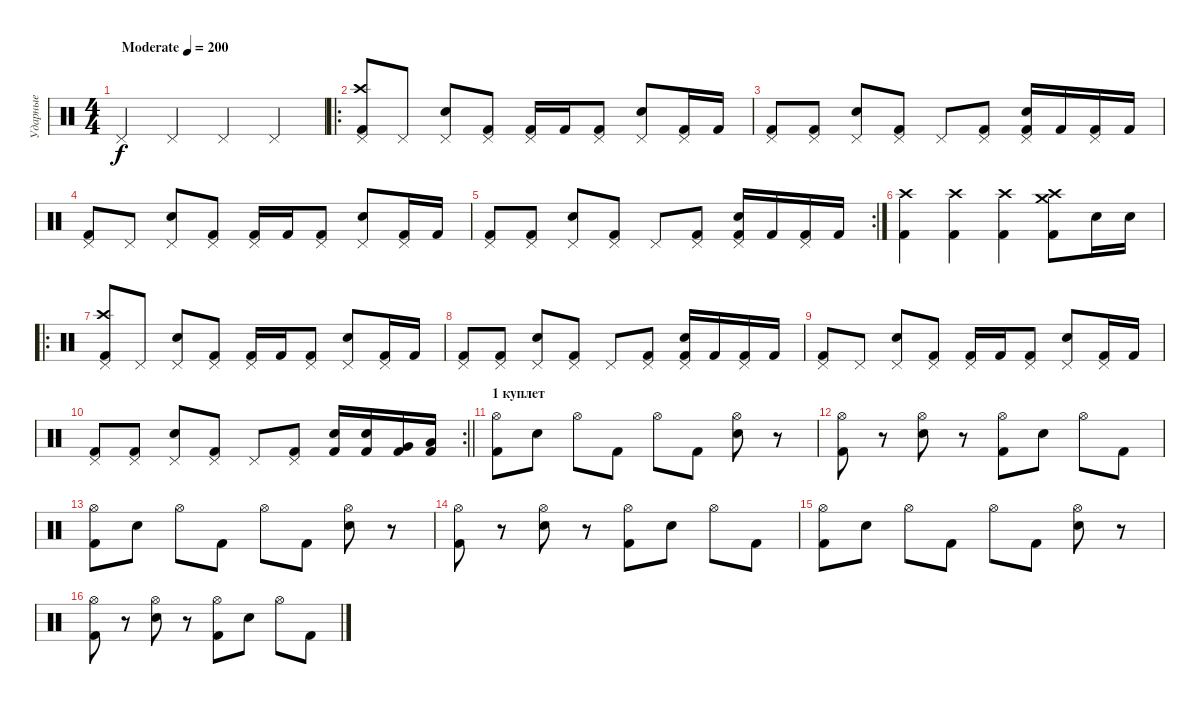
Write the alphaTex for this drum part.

\track ("Ударные" "Ударные") {instrument percussion}
\staff {score}
\articulation defaults
\ts (4 4)
\tempo (200 "Moderate")
\clef neutral
\ks c "Pedal Hi-Hat (hit)".4{dy f} "Pedal Hi-Hat (hit)".4 "Pedal Hi-Hat (hit)".4 "Pedal Hi-Hat (hit)".4
|
\ro
("Crash high (hit)" "Pedal Hi-Hat (hit)" "Kick (hit) 2").8 "Pedal Hi-Hat (hit)".8 ("Snare (hit) 2" "Pedal Hi-Hat (hit)").8 ("Pedal Hi-Hat (hit)" "Kick (hit) 2").8 ("Pedal Hi-Hat (hit)" "Kick (hit) 2").16 "Kick (hit) 2".16 ("Pedal Hi-Hat (hit)" "Kick (hit) 2").8 ("Snare (hit) 2" "Pedal Hi-Hat (hit)").8 ("Pedal Hi-Hat (hit)" "Kick (hit) 2").16 "Kick (hit) 2".16 |
("Pedal Hi-Hat (hit)" "Kick (hit) 2").8 ("Pedal Hi-Hat (hit)" "Kick (hit) 2").8 ("Snare (hit) 2" "Pedal Hi-Hat (hit)").8 ("Pedal Hi-Hat (hit)" "Kick (hit) 2").8 "Pedal Hi-Hat (hit)".8 ("Pedal Hi-Hat (hit)" "Kick (hit) 2").8 ("Snare (hit) 2" "Pedal Hi-Hat (hit)" "Kick (hit) 2").16 "Kick (hit) 2".16 ("Pedal Hi-Hat (hit)" "Kick (hit) 2").16 "Kick (hit) 2".16 |
("Pedal Hi-Hat (hit)" "Kick (hit) 2").8 "Pedal Hi-Hat (hit)".8 ("Snare (hit) 2" "Pedal Hi-Hat (hit)").8 ("Pedal Hi-Hat (hit)" "Kick (hit) 2").8 ("Pedal Hi-Hat (hit)" "Kick (hit) 2").16 "Kick (hit) 2".16 ("Pedal Hi-Hat (hit)" "Kick (hit) 2").8 ("Snare (hit) 2" "Pedal Hi-Hat (hit)").8 ("Pedal Hi-Hat (hit)" "Kick (hit) 2").16 "Kick (hit) 2".16 |
\rc 2
("Pedal Hi-Hat (hit)" "Kick (hit) 2").8 ("Pedal Hi-Hat (hit)" "Kick (hit) 2").8 ("Snare (hit) 2" "Pedal Hi-Hat (hit)").8 ("Pedal Hi-Hat (hit)" "Kick (hit) 2").8 "Pedal Hi-Hat (hit)".8 ("Pedal Hi-Hat (hit)" "Kick (hit) 2").8 ("Snare (hit) 2" "Pedal Hi-Hat (hit)" "Kick (hit) 2").16 "Kick (hit) 2".16 ("Pedal Hi-Hat (hit)" "Kick (hit) 2").16 "Kick (hit) 2".16 |
("Crash high (hit)" "Kick (hit) 2").4 ("Crash high (hit)" "Kick (hit) 2").4 ("Crash high (hit)" "Kick (hit) 2").4 ("Crash medium (hit)" "Crash high (hit)" "Kick (hit) 2").8 "Snare (hit) 2".16 "Snare (hit) 2".16 |
\ro
("Crash high (hit)" "Pedal Hi-Hat (hit)" "Kick (hit) 2").8 "Pedal Hi-Hat (hit)".8 ("Snare (hit) 2" "Pedal Hi-Hat (hit)").8 ("Pedal Hi-Hat (hit)" "Kick (hit) 2").8 ("Pedal Hi-Hat (hit)" "Kick (hit) 2").16 "Kick (hit) 2".16 ("Pedal Hi-Hat (hit)" "Kick (hit) 2").8 ("Snare (hit) 2" "Pedal Hi-Hat (hit)").8 ("Pedal Hi-Hat (hit)" "Kick (hit) 2").16 "Kick (hit) 2".16 |
("Pedal Hi-Hat (hit)" "Kick (hit) 2").8 ("Pedal Hi-Hat (hit)" "Kick (hit) 2").8 ("Snare (hit) 2" "Pedal Hi-Hat (hit)").8 ("Pedal Hi-Hat (hit)" "Kick (hit) 2").8 "Pedal Hi-Hat (hit)".8 ("Pedal Hi-Hat (hit)" "Kick (hit) 2").8 ("Snare (hit) 2" "Pedal Hi-Hat (hit)" "Kick (hit) 2").16 "Kick (hit) 2".16 ("Pedal Hi-Hat (hit)" "Kick (hit) 2").16 "Kick (hit) 2".16 |
("Pedal Hi-Hat (hit)" "Kick (hit) 2").8 "Pedal Hi-Hat (hit)".8 ("Snare (hit) 2" "Pedal Hi-Hat (hit)").8 ("Pedal Hi-Hat (hit)" "Kick (hit) 2").8 ("Pedal Hi-Hat (hit)" "Kick (hit) 2").16 "Kick (hit) 2".16 ("Pedal Hi-Hat (hit)" "Kick (hit) 2").8 ("Snare (hit) 2" "Pedal Hi-Hat (hit)").8 ("Pedal Hi-Hat (hit)" "Kick (hit) 2").16 "Kick (hit) 2".16 |
\rc 2
\barLineRight lightlight
("Pedal Hi-Hat (hit)" "Kick (hit) 2").8 ("Pedal Hi-Hat (hit)" "Kick (hit) 2").8 ("Snare (hit) 2" "Pedal Hi-Hat (hit)").8 ("Pedal Hi-Hat (hit)" "Kick (hit) 2").8 "Pedal Hi-Hat (hit)".8 ("Pedal Hi-Hat (hit)" "Kick (hit) 2").8 ("Snare (hit) 2" "Kick (hit) 2").16 ("Snare (hit) 2" "Kick (hit) 2").16 ("Very Low Tom (hit)" "Kick (hit) 2").16 ("Low Floor Tom (hit)" "Kick (hit) 2").16 |
\section ("" "1 куплет")
("Kick (hit) 2" "Hi-Hat (open)").8 "Snare (hit) 2".8 "Hi-Hat (open)".8 "Kick (hit) 2".8 "Hi-Hat (open)".8 "Kick (hit) 2".8 ("Snare (hit) 2" "Hi-Hat (open)").8 r.8 |
("Kick (hit) 2" "Hi-Hat (open)").8 r.8 ("Snare (hit) 2" "Hi-Hat (open)").8 r.8 ("Kick (hit) 2" "Hi-Hat (open)").8 "Snare (hit) 2".8 "Hi-Hat (open)".8 "Kick (hit) 2".8 |
("Kick (hit) 2" "Hi-Hat (open)").8 "Snare (hit) 2".8 "Hi-Hat (open)".8 "Kick (hit) 2".8 "Hi-Hat (open)".8 "Kick (hit) 2".8 ("Snare (hit) 2" "Hi-Hat (open)").8 r.8 |
("Kick (hit) 2" "Hi-Hat (open)").8 r.8 ("Snare (hit) 2" "Hi-Hat (open)").8 r.8 ("Kick (hit) 2" "Hi-Hat (open)").8 "Snare (hit) 2".8 "Hi-Hat (open)".8 "Kick (hit) 2".8 |
("Kick (hit) 2" "Hi-Hat (open)").8 "Snare (hit) 2".8 "Hi-Hat (open)".8 "Kick (hit) 2".8 "Hi-Hat (open)".8 "Kick (hit) 2".8 ("Snare (hit) 2" "Hi-Hat (open)").8 r.8 |
("Kick (hit) 2" "Hi-Hat (open)").8 r.8 ("Snare (hit) 2" "Hi-Hat (open)").8 r.8 ("Kick (hit) 2" "Hi-Hat (open)").8 "Snare (hit) 2".8 "Hi-Hat (open)".8 "Kick (hit) 2".8
